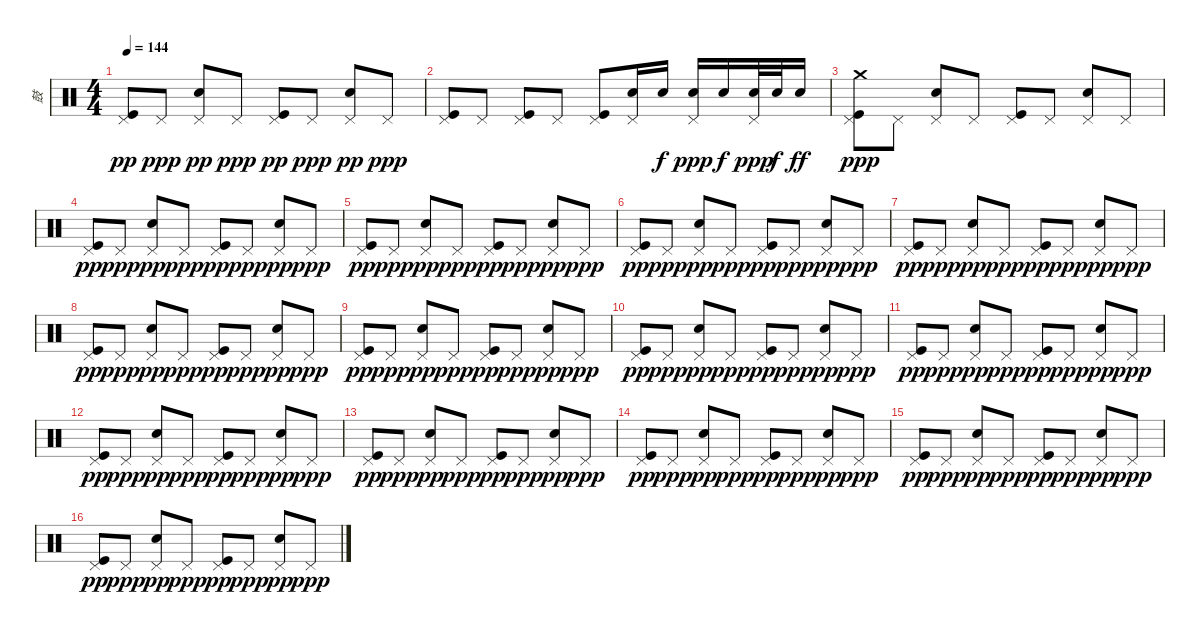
\track ("鼓" "鼓") {instrument percussion}
\staff {score}
\articulation defaults
\ts (4 4)
\tempo 144
\clef neutral
\ks c
("Kick (hit)" "Pedal Hi-Hat (hit)").8{dy pp} "Pedal Hi-Hat (hit)".8{dy ppp} ("Snare (hit) 2" "Pedal Hi-Hat (hit)").8{dy pp} "Pedal Hi-Hat (hit)".8{dy ppp} ("Kick (hit)" "Pedal Hi-Hat (hit)").8{dy pp} "Pedal Hi-Hat (hit)".8{dy ppp} ("Snare (hit) 2" "Pedal Hi-Hat (hit)").8{dy pp} "Pedal Hi-Hat (hit)".8{dy ppp} |
("Kick (hit)" "Pedal Hi-Hat (hit)").8 "Pedal Hi-Hat (hit)".8 ("Kick (hit)" "Pedal Hi-Hat (hit)").8 "Pedal Hi-Hat (hit)".8 ("Kick (hit)" "Pedal Hi-Hat (hit)").8 ("Snare (hit) 2" "Pedal Hi-Hat (hit)").16 "Snare (hit) 2".16{dy f} ("Snare (hit) 2" "Pedal Hi-Hat (hit)").16{dy ppp} "Snare (hit) 2".16{dy f} ("Snare (hit) 2" "Pedal Hi-Hat (hit)").32{dy ppp} "Snare (hit) 2".32{dy f} "Snare (hit) 2".16{dy ff} |
("Crash medium (hit)" "Kick (hit)" "Pedal Hi-Hat (hit)").8{dy ppp} "Pedal Hi-Hat (hit)".8 ("Snare (hit) 2" "Pedal Hi-Hat (hit)").8 "Pedal Hi-Hat (hit)".8 ("Kick (hit)" "Pedal Hi-Hat (hit)").8 "Pedal Hi-Hat (hit)".8 ("Snare (hit) 2" "Pedal Hi-Hat (hit)").8 "Pedal Hi-Hat (hit)".8 |
("Kick (hit)" "Pedal Hi-Hat (hit)").8{dy pp} "Pedal Hi-Hat (hit)".8{dy ppp} ("Snare (hit) 2" "Pedal Hi-Hat (hit)").8{dy pp} "Pedal Hi-Hat (hit)".8{dy ppp} ("Kick (hit)" "Pedal Hi-Hat (hit)").8{dy pp} "Pedal Hi-Hat (hit)".8{dy ppp} ("Snare (hit) 2" "Pedal Hi-Hat (hit)").8{dy pp} "Pedal Hi-Hat (hit)".8{dy ppp} |
("Kick (hit)" "Pedal Hi-Hat (hit)").8{dy pp} "Pedal Hi-Hat (hit)".8{dy ppp} ("Snare (hit) 2" "Pedal Hi-Hat (hit)").8{dy pp} "Pedal Hi-Hat (hit)".8{dy ppp} ("Kick (hit)" "Pedal Hi-Hat (hit)").8{dy pp} "Pedal Hi-Hat (hit)".8{dy ppp} ("Snare (hit) 2" "Pedal Hi-Hat (hit)").8{dy pp} "Pedal Hi-Hat (hit)".8{dy ppp} |
("Kick (hit)" "Pedal Hi-Hat (hit)").8{dy pp} "Pedal Hi-Hat (hit)".8{dy ppp} ("Snare (hit) 2" "Pedal Hi-Hat (hit)").8{dy pp} "Pedal Hi-Hat (hit)".8{dy ppp} ("Kick (hit)" "Pedal Hi-Hat (hit)").8{dy pp} "Pedal Hi-Hat (hit)".8{dy ppp} ("Snare (hit) 2" "Pedal Hi-Hat (hit)").8{dy pp} "Pedal Hi-Hat (hit)".8{dy ppp} |
("Kick (hit)" "Pedal Hi-Hat (hit)").8{dy pp} "Pedal Hi-Hat (hit)".8{dy ppp} ("Snare (hit) 2" "Pedal Hi-Hat (hit)").8{dy pp} "Pedal Hi-Hat (hit)".8{dy ppp} ("Kick (hit)" "Pedal Hi-Hat (hit)").8{dy pp} "Pedal Hi-Hat (hit)".8{dy ppp} ("Snare (hit) 2" "Pedal Hi-Hat (hit)").8{dy pp} "Pedal Hi-Hat (hit)".8{dy ppp} |
("Kick (hit)" "Pedal Hi-Hat (hit)").8{dy pp} "Pedal Hi-Hat (hit)".8{dy ppp} ("Snare (hit) 2" "Pedal Hi-Hat (hit)").8{dy pp} "Pedal Hi-Hat (hit)".8{dy ppp} ("Kick (hit)" "Pedal Hi-Hat (hit)").8{dy pp} "Pedal Hi-Hat (hit)".8{dy ppp} ("Snare (hit) 2" "Pedal Hi-Hat (hit)").8{dy pp} "Pedal Hi-Hat (hit)".8{dy ppp} |
("Kick (hit)" "Pedal Hi-Hat (hit)").8{dy pp} "Pedal Hi-Hat (hit)".8{dy ppp} ("Snare (hit) 2" "Pedal Hi-Hat (hit)").8{dy pp} "Pedal Hi-Hat (hit)".8{dy ppp} ("Kick (hit)" "Pedal Hi-Hat (hit)").8{dy pp} "Pedal Hi-Hat (hit)".8{dy ppp} ("Snare (hit) 2" "Pedal Hi-Hat (hit)").8{dy pp} "Pedal Hi-Hat (hit)".8{dy ppp} |
("Kick (hit)" "Pedal Hi-Hat (hit)").8{dy pp} "Pedal Hi-Hat (hit)".8{dy ppp} ("Snare (hit) 2" "Pedal Hi-Hat (hit)").8{dy pp} "Pedal Hi-Hat (hit)".8{dy ppp} ("Kick (hit)" "Pedal Hi-Hat (hit)").8{dy pp} "Pedal Hi-Hat (hit)".8{dy ppp} ("Snare (hit) 2" "Pedal Hi-Hat (hit)").8{dy pp} "Pedal Hi-Hat (hit)".8{dy ppp} |
("Kick (hit)" "Pedal Hi-Hat (hit)").8{dy pp} "Pedal Hi-Hat (hit)".8{dy ppp} ("Snare (hit) 2" "Pedal Hi-Hat (hit)").8{dy pp} "Pedal Hi-Hat (hit)".8{dy ppp} ("Kick (hit)" "Pedal Hi-Hat (hit)").8{dy pp} "Pedal Hi-Hat (hit)".8{dy ppp} ("Snare (hit) 2" "Pedal Hi-Hat (hit)").8{dy pp} "Pedal Hi-Hat (hit)".8{dy ppp} |
("Kick (hit)" "Pedal Hi-Hat (hit)").8{dy pp} "Pedal Hi-Hat (hit)".8{dy ppp} ("Snare (hit) 2" "Pedal Hi-Hat (hit)").8{dy pp} "Pedal Hi-Hat (hit)".8{dy ppp} ("Kick (hit)" "Pedal Hi-Hat (hit)").8{dy pp} "Pedal Hi-Hat (hit)".8{dy ppp} ("Snare (hit) 2" "Pedal Hi-Hat (hit)").8{dy pp} "Pedal Hi-Hat (hit)".8{dy ppp} |
("Kick (hit)" "Pedal Hi-Hat (hit)").8{dy pp} "Pedal Hi-Hat (hit)".8{dy ppp} ("Snare (hit) 2" "Pedal Hi-Hat (hit)").8{dy pp} "Pedal Hi-Hat (hit)".8{dy ppp} ("Kick (hit)" "Pedal Hi-Hat (hit)").8{dy pp} "Pedal Hi-Hat (hit)".8{dy ppp} ("Snare (hit) 2" "Pedal Hi-Hat (hit)").8{dy pp} "Pedal Hi-Hat (hit)".8{dy ppp} |
("Kick (hit)" "Pedal Hi-Hat (hit)").8{dy pp} "Pedal Hi-Hat (hit)".8{dy ppp} ("Snare (hit) 2" "Pedal Hi-Hat (hit)").8{dy pp} "Pedal Hi-Hat (hit)".8{dy ppp} ("Kick (hit)" "Pedal Hi-Hat (hit)").8{dy pp} "Pedal Hi-Hat (hit)".8{dy ppp} ("Snare (hit) 2" "Pedal Hi-Hat (hit)").8{dy pp} "Pedal Hi-Hat (hit)".8{dy ppp} |
("Kick (hit)" "Pedal Hi-Hat (hit)").8{dy pp} "Pedal Hi-Hat (hit)".8{dy ppp} ("Snare (hit) 2" "Pedal Hi-Hat (hit)").8{dy pp} "Pedal Hi-Hat (hit)".8{dy ppp} ("Kick (hit)" "Pedal Hi-Hat (hit)").8{dy pp} "Pedal Hi-Hat (hit)".8{dy ppp} ("Snare (hit) 2" "Pedal Hi-Hat (hit)").8{dy pp} "Pedal Hi-Hat (hit)".8{dy ppp} |
("Kick (hit)" "Pedal Hi-Hat (hit)").8{dy pp} "Pedal Hi-Hat (hit)".8{dy ppp} ("Snare (hit) 2" "Pedal Hi-Hat (hit)").8{dy pp} "Pedal Hi-Hat (hit)".8{dy ppp} ("Kick (hit)" "Pedal Hi-Hat (hit)").8{dy pp} "Pedal Hi-Hat (hit)".8{dy ppp} ("Snare (hit) 2" "Pedal Hi-Hat (hit)").8{dy pp} "Pedal Hi-Hat (hit)".8{dy ppp}
